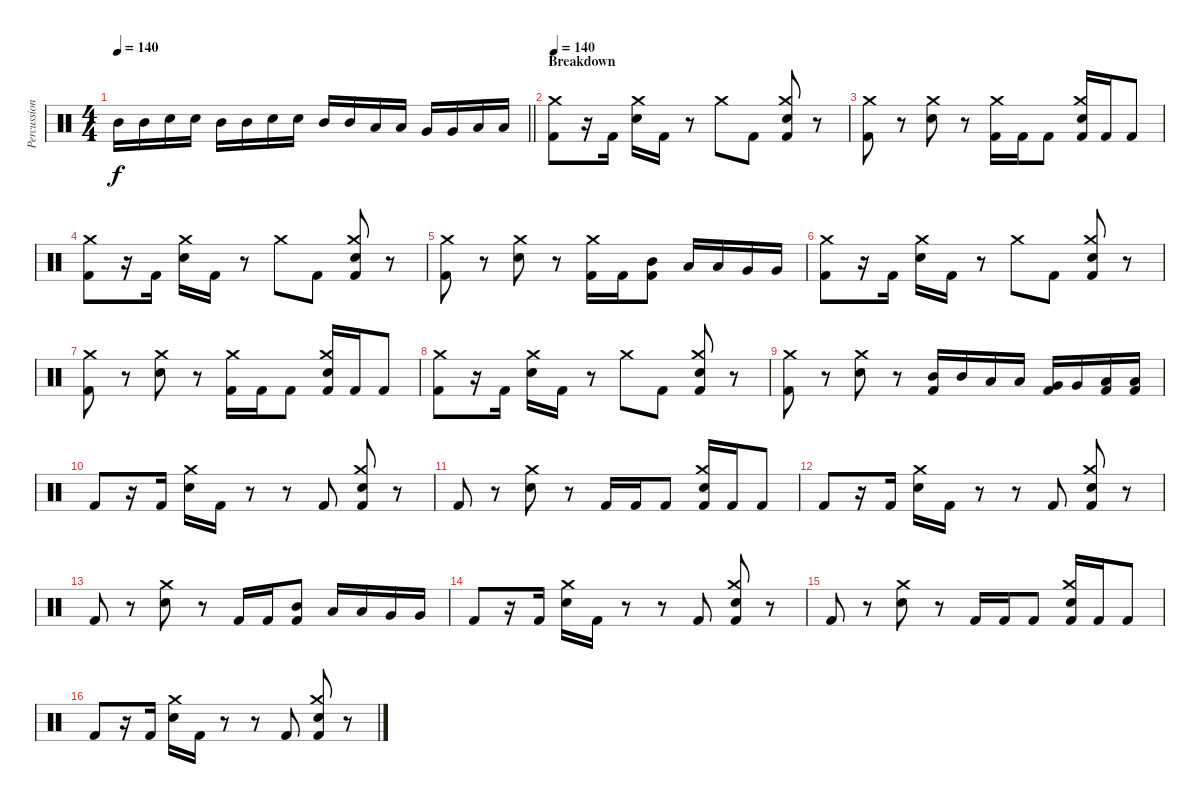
\track ("Percussion" "Percussion") {instrument percussion}
\staff {score}
\articulation defaults
\ts (4 4)
\tempo 140
\clef neutral
\barLineRight lightlight
\ks c "Mid Tom (hit)".16{dy f} "Mid Tom (hit)".16 "Electric Snare (hit)".16 "Electric Snare (hit)".16 "Mid Tom (hit)".16 "Mid Tom (hit)".16 "Electric Snare (hit)".16 "Electric Snare (hit)".16 "Mid Tom (hit)".16 "Mid Tom (hit)".16 "Low Tom (hit)".16 "Low Tom (hit)".16 "Very Low Tom (hit)".16 "Very Low Tom (hit)".16 "Low Floor Tom (hit)".16 "Low Floor Tom (hit)".16
|
\section ("" "Breakdown")
\tempo 140
("Crash medium (hit)" "Kick (hit) 2").8 r.16 "Kick (hit) 2".16 ("Crash medium (hit)" "Electric Snare (hit)").16 "Kick (hit) 2".16 r.8 "Crash medium (hit)".8 "Kick (hit) 2".8 ("Crash medium (hit)" "Electric Snare (hit)" "Kick (hit) 2").8 r.8 |
("Crash medium (hit)" "Kick (hit) 2").8 r.8 ("Crash medium (hit)" "Electric Snare (hit)").8 r.8 ("Crash medium (hit)" "Kick (hit) 2").16 "Kick (hit) 2".16 "Kick (hit) 2".8 ("Crash medium (hit)" "Electric Snare (hit)" "Kick (hit) 2").16 "Kick (hit) 2".16 "Kick (hit) 2".8 |
("Crash medium (hit)" "Kick (hit) 2").8 r.16 "Kick (hit) 2".16 ("Crash medium (hit)" "Electric Snare (hit)").16 "Kick (hit) 2".16 r.8 "Crash medium (hit)".8 "Kick (hit) 2".8 ("Crash medium (hit)" "Electric Snare (hit)" "Kick (hit) 2").8 r.8 |
("Crash medium (hit)" "Kick (hit) 2").8 r.8 ("Crash medium (hit)" "Electric Snare (hit)").8 r.8 ("Crash medium (hit)" "Kick (hit) 2").16 "Kick (hit) 2".16 ("Mid Tom (hit)" "Kick (hit) 2").8 "Low Tom (hit)".16 "Low Tom (hit)".16 "Very Low Tom (hit)".16 "Very Low Tom (hit)".16 |
("Crash medium (hit)" "Kick (hit) 2").8 r.16 "Kick (hit) 2".16 ("Crash medium (hit)" "Electric Snare (hit)").16 "Kick (hit) 2".16 r.8 "Crash medium (hit)".8 "Kick (hit) 2".8 ("Crash medium (hit)" "Electric Snare (hit)" "Kick (hit) 2").8 r.8 |
("Crash medium (hit)" "Kick (hit) 2").8 r.8 ("Crash medium (hit)" "Electric Snare (hit)").8 r.8 ("Crash medium (hit)" "Kick (hit) 2").16 "Kick (hit) 2".16 "Kick (hit) 2".8 ("Crash medium (hit)" "Electric Snare (hit)" "Kick (hit) 2").16 "Kick (hit) 2".16 "Kick (hit) 2".8 |
("Crash medium (hit)" "Kick (hit) 2").8 r.16 "Kick (hit) 2".16 ("Crash medium (hit)" "Electric Snare (hit)").16 "Kick (hit) 2".16 r.8 "Crash medium (hit)".8 "Kick (hit) 2".8 ("Crash medium (hit)" "Electric Snare (hit)" "Kick (hit) 2").8 r.8 |
("Crash medium (hit)" "Kick (hit) 2").8 r.8 ("Crash medium (hit)" "Electric Snare (hit)").8 r.8 ("Mid Tom (hit)" "Kick (hit) 2").16 "Mid Tom (hit)".16 "Low Tom (hit)".16 "Low Tom (hit)".16 ("Very Low Tom (hit)" "Kick (hit) 2").16 "Very Low Tom (hit)".16 ("Low Floor Tom (hit)" "Kick (hit) 2").16 ("Low Floor Tom (hit)" "Kick (hit) 2").16 |
"Kick (hit) 2".8 r.16 "Kick (hit) 2".16 ("Crash medium (hit)" "Electric Snare (hit)").16 "Kick (hit) 2".16 r.8 r.8 "Kick (hit) 2".8 ("Crash medium (hit)" "Electric Snare (hit)" "Kick (hit) 2").8 r.8 |
"Kick (hit) 2".8 r.8 ("Crash medium (hit)" "Electric Snare (hit)").8 r.8 "Kick (hit) 2".16 "Kick (hit) 2".16 "Kick (hit) 2".8 ("Crash medium (hit)" "Electric Snare (hit)" "Kick (hit) 2").16 "Kick (hit) 2".16 "Kick (hit) 2".8 |
"Kick (hit) 2".8 r.16 "Kick (hit) 2".16 ("Crash medium (hit)" "Electric Snare (hit)").16 "Kick (hit) 2".16 r.8 r.8 "Kick (hit) 2".8 ("Crash medium (hit)" "Electric Snare (hit)" "Kick (hit) 2").8 r.8 |
"Kick (hit) 2".8 r.8 ("Crash medium (hit)" "Electric Snare (hit)").8 r.8 "Kick (hit) 2".16 "Kick (hit) 2".16 ("Mid Tom (hit)" "Kick (hit) 2").8 "Low Tom (hit)".16 "Low Tom (hit)".16 "Very Low Tom (hit)".16 "Very Low Tom (hit)".16 |
"Kick (hit) 2".8 r.16 "Kick (hit) 2".16 ("Crash medium (hit)" "Electric Snare (hit)").16 "Kick (hit) 2".16 r.8 r.8 "Kick (hit) 2".8 ("Crash medium (hit)" "Electric Snare (hit)" "Kick (hit) 2").8 r.8 |
"Kick (hit) 2".8 r.8 ("Crash medium (hit)" "Electric Snare (hit)").8 r.8 "Kick (hit) 2".16 "Kick (hit) 2".16 "Kick (hit) 2".8 ("Crash medium (hit)" "Electric Snare (hit)" "Kick (hit) 2").16 "Kick (hit) 2".16 "Kick (hit) 2".8 |
"Kick (hit) 2".8 r.16 "Kick (hit) 2".16 ("Crash medium (hit)" "Electric Snare (hit)").16 "Kick (hit) 2".16 r.8 r.8 "Kick (hit) 2".8 ("Crash medium (hit)" "Electric Snare (hit)" "Kick (hit) 2").8 r.8
